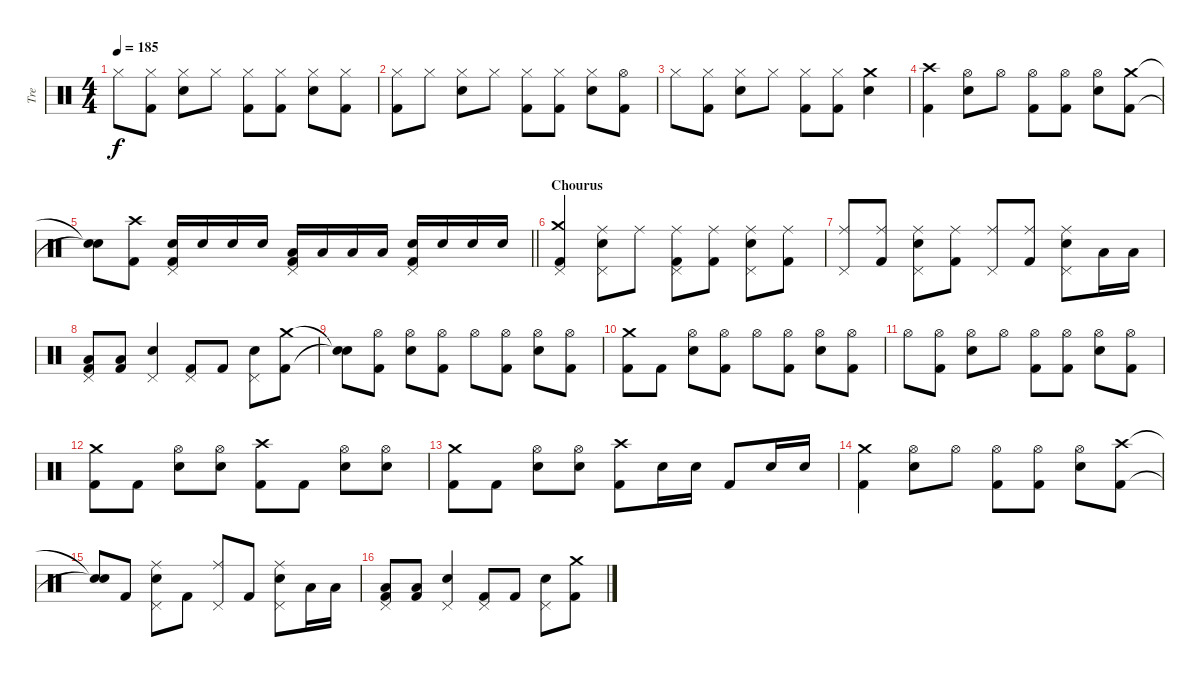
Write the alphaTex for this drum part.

\track ("Tre" "Tre") {instrument percussion}
\staff {score}
\articulation defaults
\ts (4 4)
\tempo 185
\clef neutral
\ks c "Hi-Hat (closed)".8{dy f}
("Hi-Hat (closed)" "Kick (hit) 2").8 ("Hi-Hat (closed)" "Electric Snare (hit)").8 "Hi-Hat (closed)".8 ("Hi-Hat (closed)" "Kick (hit) 2").8 ("Hi-Hat (closed)" "Kick (hit) 2").8 ("Hi-Hat (closed)" "Electric Snare (hit)").8 ("Hi-Hat (closed)" "Kick (hit) 2").8 |
("Hi-Hat (closed)" "Kick (hit) 2").8 "Hi-Hat (closed)".8 ("Hi-Hat (closed)" "Electric Snare (hit)").8 "Hi-Hat (closed)".8 ("Hi-Hat (closed)" "Kick (hit) 2").8 ("Hi-Hat (closed)" "Kick (hit) 2").8 ("Hi-Hat (closed)" "Electric Snare (hit)").8 ("Hi-Hat (open)" "Kick (hit) 2").8 |
"Hi-Hat (closed)".8 ("Hi-Hat (closed)" "Kick (hit) 2").8 ("Hi-Hat (closed)" "Electric Snare (hit)").8 "Hi-Hat (closed)".8 ("Hi-Hat (closed)" "Kick (hit) 2").8 ("Hi-Hat (closed)" "Kick (hit) 2").8 ("Crash medium (hit)" "Electric Snare (hit)").4 |
("Crash high (hit)" "Kick (hit) 2").4 ("Hi-Hat (open)" "Electric Snare (hit)").8 "Hi-Hat (open)".8 ("Hi-Hat (open)" "Kick (hit) 2").8 ("Hi-Hat (open)" "Kick (hit) 2").8 ("Hi-Hat (open)" "Electric Snare (hit)").8 ("Crash medium (hit)" "Kick (hit) 2").8 |
\barLineRight lightlight
("Snare (hit)"{t} "Snare (hit)"{t}).8 ("Crash high (hit)" "Kick (hit) 2").8 ("Electric Snare (hit)" "Pedal Hi-Hat (hit)" "Kick (hit) 2").16 "Electric Snare (hit)".16 "Electric Snare (hit)".16 "Electric Snare (hit)".16 ("Low Tom (hit)" "Pedal Hi-Hat (hit)" "Kick (hit) 2").16 "Low Tom (hit)".16 "Low Tom (hit)".16 "Low Tom (hit)".16 ("Electric Snare (hit)" "Pedal Hi-Hat (hit)" "Kick (hit) 2").16 "Electric Snare (hit)".16 "Electric Snare (hit)".16 "Electric Snare (hit)".16 |
\section ("" "Chourus")
("Crash medium (hit)" "Pedal Hi-Hat (hit)" "Kick (hit) 2").4 ("Ride (middle)" "Electric Snare (hit)" "Pedal Hi-Hat (hit)").8 "Ride (middle)".8 ("Ride (middle)" "Pedal Hi-Hat (hit)" "Kick (hit) 2").8 ("Ride (middle)" "Kick (hit) 2").8 ("Ride (middle)" "Electric Snare (hit)" "Pedal Hi-Hat (hit)").8 ("Ride (middle)" "Kick (hit) 2").8 |
("Ride (middle)" "Pedal Hi-Hat (hit)").8 ("Ride (middle)" "Kick (hit) 2").8 ("Ride (middle)" "Electric Snare (hit)" "Pedal Hi-Hat (hit)").8 ("Ride (middle)" "Kick (hit) 2").8 ("Ride (middle)" "Pedal Hi-Hat (hit)").8 ("Ride (middle)" "Kick (hit) 2").8 ("Ride (middle)" "Electric Snare (hit)" "Pedal Hi-Hat (hit)").8 "Low Floor Tom (hit)".16 "Low Floor Tom (hit)".16 |
("Low Floor Tom (hit)" "Pedal Hi-Hat (hit)" "Kick (hit) 2").8 ("Low Floor Tom (hit)" "Kick (hit) 2").8 ("Electric Snare (hit)" "Pedal Hi-Hat (hit)").4 ("Pedal Hi-Hat (hit)" "Kick (hit) 2").8 "Kick (hit) 2".8 ("Electric Snare (hit)" "Pedal Hi-Hat (hit)").8 ("Crash medium (hit)" "Kick (hit) 2").8 |
("Snare (hit)"{t} "Snare (hit)"{t}).8 ("Hi-Hat (open)" "Kick (hit) 2").8 ("Hi-Hat (open)" "Electric Snare (hit)").8 ("Hi-Hat (open)" "Kick (hit) 2").8 "Hi-Hat (open)".8 ("Hi-Hat (open)" "Kick (hit) 2").8 ("Hi-Hat (open)" "Electric Snare (hit)").8 ("Hi-Hat (open)" "Kick (hit) 2").8 |
("Crash medium (hit)" "Kick (hit) 2").8 "Kick (hit) 2".8 ("Hi-Hat (open)" "Electric Snare (hit)").8 ("Hi-Hat (open)" "Kick (hit) 2").8 "Hi-Hat (open)".8 ("Hi-Hat (open)" "Kick (hit) 2").8 ("Hi-Hat (open)" "Electric Snare (hit)").8 ("Hi-Hat (open)" "Kick (hit) 2").8 |
"Hi-Hat (open)".8 ("Hi-Hat (open)" "Kick (hit) 2").8 ("Hi-Hat (open)" "Electric Snare (hit)").8 "Hi-Hat (open)".8 ("Hi-Hat (open)" "Kick (hit) 2").8 ("Hi-Hat (open)" "Kick (hit) 2").8 ("Hi-Hat (open)" "Electric Snare (hit)").8 ("Hi-Hat (open)" "Kick (hit) 2").8 |
("Crash medium (hit)" "Kick (hit) 2").8 "Kick (hit) 2".8 ("Hi-Hat (open)" "Electric Snare (hit)").8 ("Hi-Hat (open)" "Electric Snare (hit)").8 ("Crash high (hit)" "Kick (hit) 2").8 "Kick (hit) 2".8 ("Hi-Hat (open)" "Electric Snare (hit)").8 ("Hi-Hat (open)" "Electric Snare (hit)").8 |
("Crash medium (hit)" "Kick (hit) 2").8 "Kick (hit) 2".8 ("Hi-Hat (open)" "Electric Snare (hit)").8 ("Hi-Hat (open)" "Electric Snare (hit)").8 ("Crash high (hit)" "Kick (hit) 2").8 "Electric Snare (hit)".16 "Electric Snare (hit)".16 "Kick (hit) 2".8 "Electric Snare (hit)".16 "Electric Snare (hit)".16 |
("Crash medium (hit)" "Kick (hit) 2").4 ("Hi-Hat (open)" "Electric Snare (hit)").8 "Hi-Hat (open)".8 ("Hi-Hat (open)" "Kick (hit) 2").8 ("Hi-Hat (open)" "Kick (hit) 2").8 ("Hi-Hat (open)" "Electric Snare (hit)").8 ("Crash high (hit)" "Kick (hit) 2").8 |
("Snare (hit)"{t} "Snare (hit)"{t}).8 "Kick (hit) 2".8 ("Ride (middle)" "Electric Snare (hit)" "Pedal Hi-Hat (hit)").8 "Kick (hit) 2".8 ("Ride (middle)" "Pedal Hi-Hat (hit)").8 "Kick (hit) 2".8 ("Ride (middle)" "Electric Snare (hit)" "Pedal Hi-Hat (hit)").8 "Low Floor Tom (hit)".16 "Low Floor Tom (hit)".16 |
("Low Floor Tom (hit)" "Pedal Hi-Hat (hit)" "Kick (hit) 2").8 ("Low Floor Tom (hit)" "Kick (hit) 2").8 ("Electric Snare (hit)" "Pedal Hi-Hat (hit)").4 ("Pedal Hi-Hat (hit)" "Kick (hit) 2").8 "Kick (hit) 2".8 ("Electric Snare (hit)" "Pedal Hi-Hat (hit)").8 ("Crash medium (hit)" "Kick (hit) 2").8
